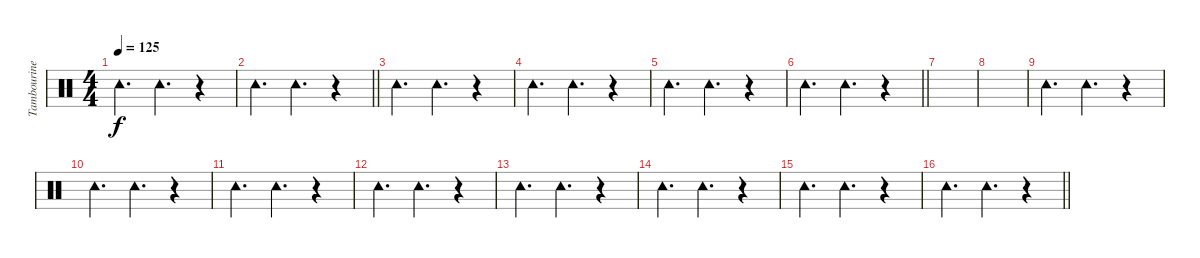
\track ("Tambourine" "Tambourine") {instrument percussion}
\staff {score}
\articulation defaults
\ts (4 4)
\tempo 125
\clef neutral
\ks c "Tambourine (hit)".4{d dy f} "Tambourine (hit)".4{d}
r.4 |
\barLineRight lightlight "Tambourine (hit)".4{d} "Tambourine (hit)".4{d}
r.4 |
"Tambourine (hit)".4{d} "Tambourine (hit)".4{d} r.4 |
"Tambourine (hit)".4{d} "Tambourine (hit)".4{d} r.4 |
"Tambourine (hit)".4{d} "Tambourine (hit)".4{d} r.4 |
\barLineRight lightlight "Tambourine (hit)".4{d} "Tambourine (hit)".4{d}
r.4 |
|
|
"Tambourine (hit)".4{d} "Tambourine (hit)".4{d} r.4 |
"Tambourine (hit)".4{d} "Tambourine (hit)".4{d} r.4 |
"Tambourine (hit)".4{d} "Tambourine (hit)".4{d} r.4 |
"Tambourine (hit)".4{d} "Tambourine (hit)".4{d} r.4 |
"Tambourine (hit)".4{d} "Tambourine (hit)".4{d} r.4 |
"Tambourine (hit)".4{d} "Tambourine (hit)".4{d} r.4 |
"Tambourine (hit)".4{d} "Tambourine (hit)".4{d} r.4 |
\barLineRight lightlight "Tambourine (hit)".4{d} "Tambourine (hit)".4{d}
r.4
